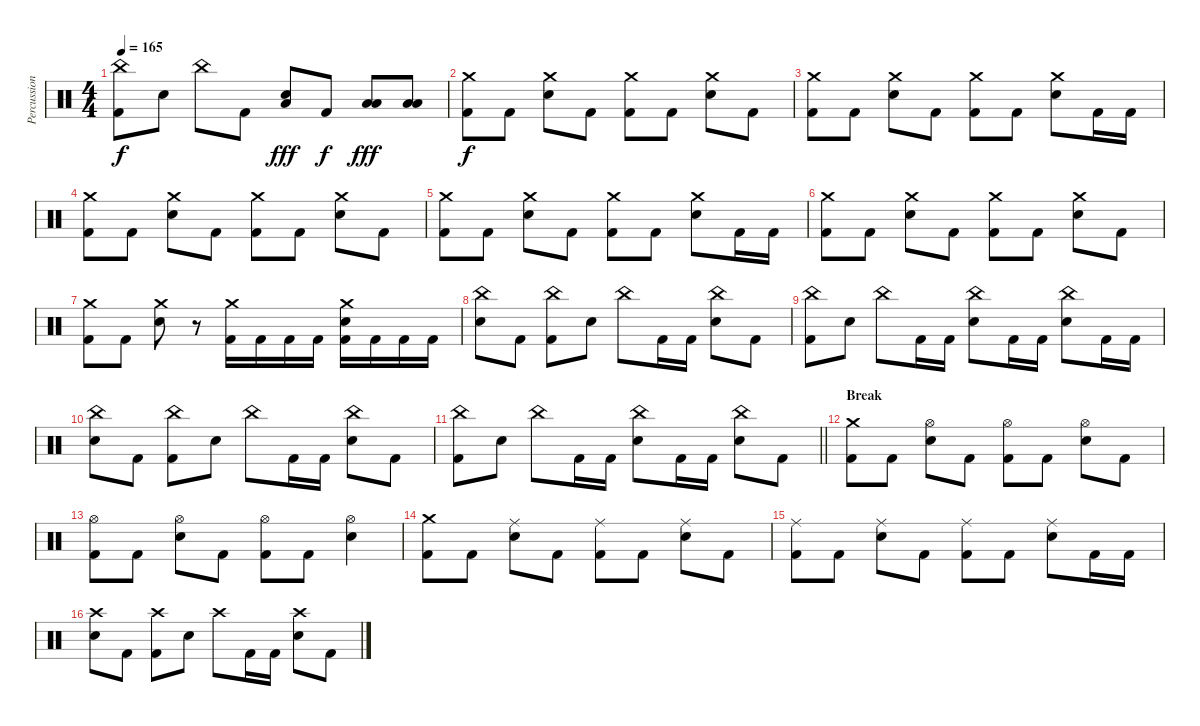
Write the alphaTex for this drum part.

\track ("Percussions" "Percussion") {instrument percussion}
\staff
\articulation defaults
\ts (4 4)
\tempo 165
\clef neutral
\ks c
("China (hit)" "Kick (hit) 2").8{dy f} "Electric Snare (hit)".8 "China (hit)".8 "Kick (hit) 2".8 ("Electric Snare (hit)" "Low Floor Tom (hit)").8{dy fff} "Kick (hit) 2".8{dy f} ("Low Tom (hit)" "Low Floor Tom (hit)").8{dy fff} ("Low Tom (hit)" "Low Floor Tom (hit)").8 |
("Crash medium (hit)" "Kick (hit) 2").8{dy f} "Kick (hit) 2".8 ("Crash medium (hit)" "Electric Snare (hit)").8 "Kick (hit) 2".8 ("Crash medium (hit)" "Kick (hit) 2").8 "Kick (hit) 2".8 ("Crash medium (hit)" "Electric Snare (hit)").8 "Kick (hit) 2".8 |
("Crash medium (hit)" "Kick (hit) 2").8 "Kick (hit) 2".8 ("Crash medium (hit)" "Electric Snare (hit)").8 "Kick (hit) 2".8 ("Crash medium (hit)" "Kick (hit) 2").8 "Kick (hit) 2".8 ("Crash medium (hit)" "Electric Snare (hit)").8 "Kick (hit) 2".16 "Kick (hit) 2".16 |
("Crash medium (hit)" "Kick (hit) 2").8 "Kick (hit) 2".8 ("Crash medium (hit)" "Electric Snare (hit)").8 "Kick (hit) 2".8 ("Crash medium (hit)" "Kick (hit) 2").8 "Kick (hit) 2".8 ("Crash medium (hit)" "Electric Snare (hit)").8 "Kick (hit) 2".8 |
("Crash medium (hit)" "Kick (hit) 2").8 "Kick (hit) 2".8 ("Crash medium (hit)" "Electric Snare (hit)").8 "Kick (hit) 2".8 ("Crash medium (hit)" "Kick (hit) 2").8 "Kick (hit) 2".8 ("Crash medium (hit)" "Electric Snare (hit)").8 "Kick (hit) 2".16 "Kick (hit) 2".16 |
("Crash medium (hit)" "Kick (hit) 2").8 "Kick (hit) 2".8 ("Crash medium (hit)" "Electric Snare (hit)").8 "Kick (hit) 2".8 ("Crash medium (hit)" "Kick (hit) 2").8 "Kick (hit) 2".8 ("Crash medium (hit)" "Electric Snare (hit)").8 "Kick (hit) 2".8 |
("Crash medium (hit)" "Kick (hit) 2").8 "Kick (hit) 2".8 ("Crash medium (hit)" "Electric Snare (hit)").8 r.8 ("Crash medium (hit)" "Kick (hit) 2").16 "Kick (hit) 2".16 "Kick (hit) 2".16 "Kick (hit) 2".16 ("Crash medium (hit)" "Electric Snare (hit)" "Kick (hit) 2").16 "Kick (hit) 2".16 "Kick (hit) 2".16 "Kick (hit) 2".16 |
("China (hit)" "Electric Snare (hit)").8 "Kick (hit) 2".8 ("China (hit)" "Kick (hit) 2").8 "Electric Snare (hit)".8 "China (hit)".8 "Kick (hit) 2".16 "Kick (hit) 2".16 ("China (hit)" "Electric Snare (hit)").8 "Kick (hit) 2".8 |
("China (hit)" "Kick (hit) 2").8 "Electric Snare (hit)".8 "China (hit)".8 "Kick (hit) 2".16 "Kick (hit) 2".16 ("China (hit)" "Electric Snare (hit)").8 "Kick (hit) 2".16 "Kick (hit) 2".16 ("China (hit)" "Electric Snare (hit)").8 "Kick (hit) 2".16 "Kick (hit) 2".16 |
("China (hit)" "Electric Snare (hit)").8 "Kick (hit) 2".8 ("China (hit)" "Kick (hit) 2").8 "Electric Snare (hit)".8 "China (hit)".8 "Kick (hit) 2".16 "Kick (hit) 2".16 ("China (hit)" "Electric Snare (hit)").8 "Kick (hit) 2".8 |
\barLineRight lightlight
("China (hit)" "Kick (hit) 2").8 "Electric Snare (hit)".8 "China (hit)".8 "Kick (hit) 2".16 "Kick (hit) 2".16 ("China (hit)" "Electric Snare (hit)").8 "Kick (hit) 2".16 "Kick (hit) 2".16 ("China (hit)" "Electric Snare (hit)").8 "Kick (hit) 2".8 |
\section ("" "Break")
("Crash medium (hit)" "Kick (hit) 2").8 "Kick (hit) 2".8 ("Hi-Hat (open)" "Electric Snare (hit)").8 "Kick (hit) 2".8 ("Hi-Hat (open)" "Kick (hit) 2").8 "Kick (hit) 2".8 ("Hi-Hat (open)" "Electric Snare (hit)").8 "Kick (hit) 2".8 |
("Hi-Hat (open)" "Kick (hit) 2").8 "Kick (hit) 2".8 ("Hi-Hat (open)" "Electric Snare (hit)").8 "Kick (hit) 2".8 ("Hi-Hat (open)" "Kick (hit) 2").8 "Kick (hit) 2".8 ("Hi-Hat (open)" "Electric Snare (hit)").4 |
("Crash medium (hit)" "Kick (hit) 2").8 "Kick (hit) 2".8 ("Ride (middle)" "Electric Snare (hit)").8 "Kick (hit) 2".8 ("Ride (middle)" "Kick (hit) 2").8 "Kick (hit) 2".8 ("Ride (middle)" "Electric Snare (hit)").8 "Kick (hit) 2".8 |
("Ride (middle)" "Kick (hit) 2").8 "Kick (hit) 2".8 ("Ride (middle)" "Electric Snare (hit)").8 "Kick (hit) 2".8 ("Ride (middle)" "Kick (hit) 2").8 "Kick (hit) 2".8 ("Ride (middle)" "Electric Snare (hit)").8 "Kick (hit) 2".16 "Kick (hit) 2".16 |
("Crash high (hit)" "Electric Snare (hit)").8 "Kick (hit) 2".8 ("Crash high (hit)" "Kick (hit) 2").8 "Electric Snare (hit)".8 "Crash high (hit)".8 "Kick (hit) 2".16 "Kick (hit) 2".16 ("Crash high (hit)" "Electric Snare (hit)").8 "Kick (hit) 2".8
